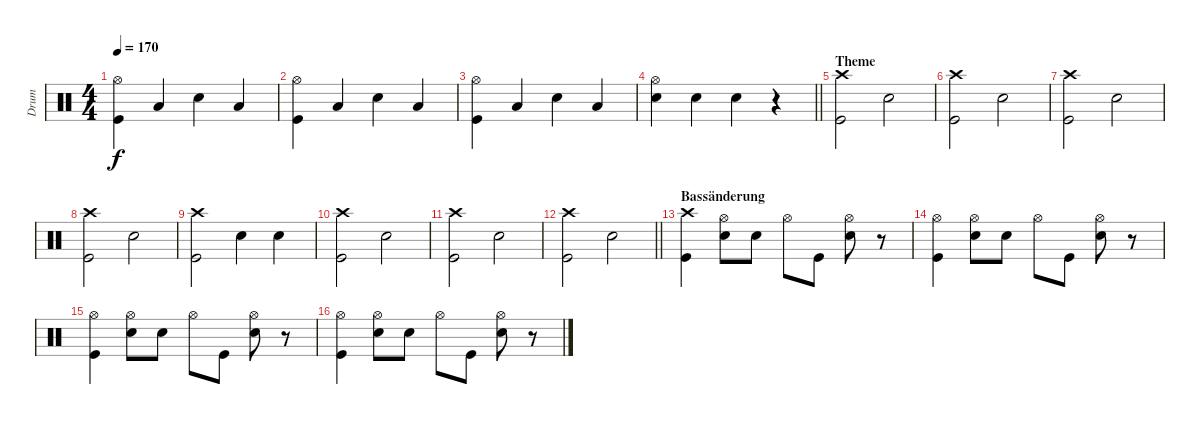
\track ("Drum" "Drum") {instrument percussion}
\staff {score}
\articulation defaults
\ts (4 4)
\tempo 170
\clef neutral
\ks c
("Hi-Hat (open)" "Kick (hit)").4{dy f} "Low Floor Tom (hit)".4 "Snare (hit) 2".4 "Low Floor Tom (hit)".4 |
("Hi-Hat (open)" "Kick (hit)").4 "Low Floor Tom (hit)".4 "Snare (hit) 2".4 "Low Floor Tom (hit)".4 |
("Hi-Hat (open)" "Kick (hit)").4 "Low Floor Tom (hit)".4 "Snare (hit) 2".4 "Low Floor Tom (hit)".4 |
\barLineRight lightlight
("Hi-Hat (open)" "Snare (hit) 2").4 "Snare (hit) 2".4 "Snare (hit) 2".4 r.4 |
\section ("" "Theme")
("Kick (hit)" "Crash high (hit)").2 "Snare (hit) 2".2 |
("Kick (hit)" "Crash high (hit)").2 "Snare (hit) 2".2 |
("Kick (hit)" "Crash high (hit)").2 "Snare (hit) 2".2 |
("Kick (hit)" "Crash high (hit)").2 "Snare (hit) 2".2 |
("Kick (hit)" "Crash high (hit)").2 "Snare (hit) 2".4 "Snare (hit) 2".4 |
("Kick (hit)" "Crash high (hit)").2 "Snare (hit) 2".2 |
("Kick (hit)" "Crash high (hit)").2 "Snare (hit) 2".2 |
\barLineRight lightlight
("Kick (hit)" "Crash high (hit)").2 "Snare (hit) 2".2 |
\section ("" "Bassänderung")
("Kick (hit)" "Crash high (hit)").4 ("Snare (hit) 2" "Hi-Hat (open)").8 "Snare (hit) 2".8 "Hi-Hat (open)".8 "Kick (hit)".8 ("Snare (hit) 2" "Hi-Hat (open)").8 r.8 |
("Kick (hit)" "Hi-Hat (open)").4 ("Snare (hit) 2" "Hi-Hat (open)").8 "Snare (hit) 2".8 "Hi-Hat (open)".8 "Kick (hit)".8 ("Snare (hit) 2" "Hi-Hat (open)").8 r.8 |
("Kick (hit)" "Hi-Hat (open)").4 ("Snare (hit) 2" "Hi-Hat (open)").8 "Snare (hit) 2".8 "Hi-Hat (open)".8 "Kick (hit)".8 ("Snare (hit) 2" "Hi-Hat (open)").8 r.8 |
("Kick (hit)" "Hi-Hat (open)").4 ("Snare (hit) 2" "Hi-Hat (open)").8 "Snare (hit) 2".8 "Hi-Hat (open)".8 "Kick (hit)".8 ("Snare (hit) 2" "Hi-Hat (open)").8 r.8
